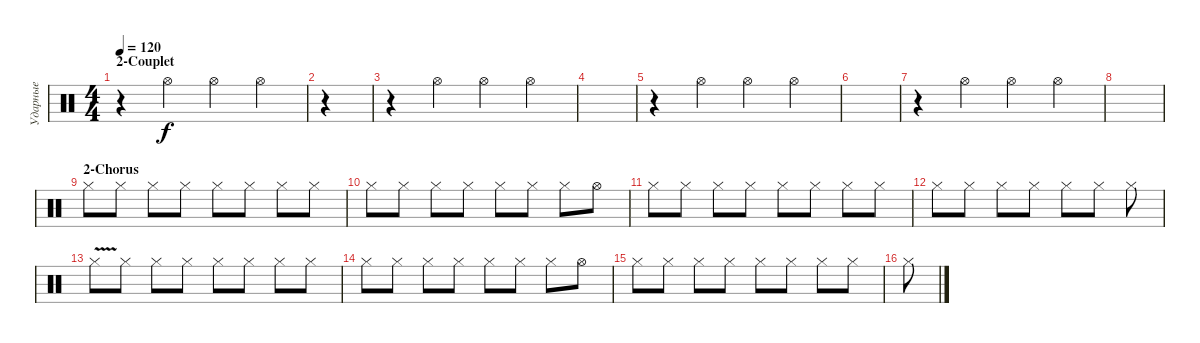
\track ("Ударные" "Ударные") {instrument percussion}
\staff {score}
\articulation defaults
\ts (4 4)
\section ("" "2-Couplet")
\tempo 120
\clef neutral
\ks c
r.4{dy f} "Hi-Hat (open)".4 "Hi-Hat (open)".4 "Hi-Hat (open)".4 |
r.4 |
r.4 "Hi-Hat (open)".4 "Hi-Hat (open)".4 "Hi-Hat (open)".4 |
|
r.4 "Hi-Hat (open)".4 "Hi-Hat (open)".4 "Hi-Hat (open)".4 |
|
r.4 "Hi-Hat (open)".4 "Hi-Hat (open)".4 "Hi-Hat (open)".4 |
|
\section ("" "2-Chorus")
"Hi-Hat (closed)".8 "Hi-Hat (closed)".8 "Hi-Hat (closed)".8 "Hi-Hat (closed)".8 "Hi-Hat (closed)".8 "Hi-Hat (closed)".8 "Hi-Hat (closed)".8 "Hi-Hat (closed)".8 |
"Hi-Hat (closed)".8 "Hi-Hat (closed)".8 "Hi-Hat (closed)".8 "Hi-Hat (closed)".8 "Hi-Hat (closed)".8 "Hi-Hat (closed)".8 "Hi-Hat (closed)".8 "Hi-Hat (open)".8 |
"Hi-Hat (closed)".8 "Hi-Hat (closed)".8 "Hi-Hat (closed)".8 "Hi-Hat (closed)".8 "Hi-Hat (closed)".8 "Hi-Hat (closed)".8 "Hi-Hat (closed)".8 "Hi-Hat (closed)".8 |
"Hi-Hat (closed)".8 "Hi-Hat (closed)".8 "Hi-Hat (closed)".8 "Hi-Hat (closed)".8 "Hi-Hat (closed)".8 "Hi-Hat (closed)".8 "Hi-Hat (closed)".8 |
"Hi-Hat (closed)"{v}.8 "Hi-Hat (closed)".8 "Hi-Hat (closed)".8 "Hi-Hat (closed)".8 "Hi-Hat (closed)".8 "Hi-Hat (closed)".8 "Hi-Hat (closed)".8 "Hi-Hat (closed)".8 |
"Hi-Hat (closed)".8 "Hi-Hat (closed)".8 "Hi-Hat (closed)".8 "Hi-Hat (closed)".8 "Hi-Hat (closed)".8 "Hi-Hat (closed)".8 "Hi-Hat (closed)".8 "Hi-Hat (open)".8 |
"Hi-Hat (closed)".8 "Hi-Hat (closed)".8 "Hi-Hat (closed)".8 "Hi-Hat (closed)".8 "Hi-Hat (closed)".8 "Hi-Hat (closed)".8 "Hi-Hat (closed)".8 "Hi-Hat (closed)".8 |
"Hi-Hat (closed)".8
